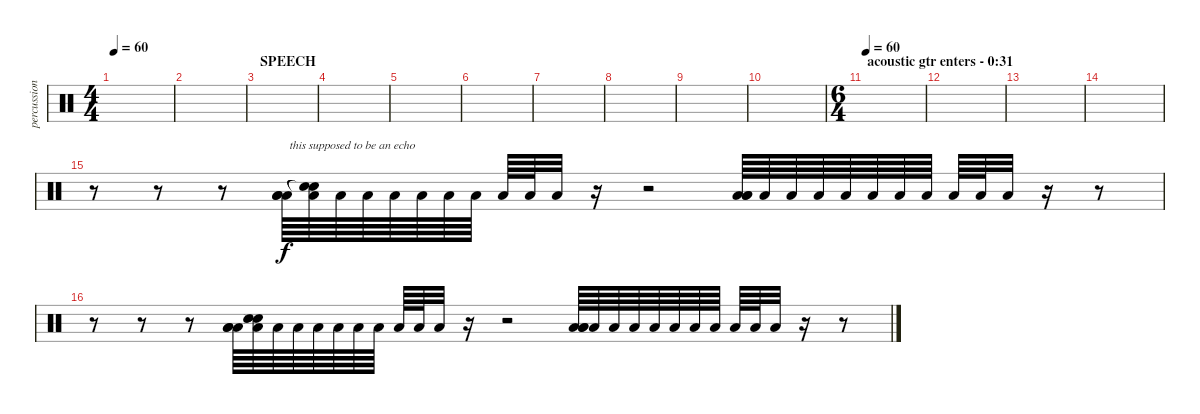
\track ("percussion" "percussion") {instrument percussion}
\staff {score}
\articulation defaults
\ts (4 4)
\tempo 60
\tempo 70
\tempo 60
\clef neutral
\ks c
|
|
\section ("" "SPEECH")
|
|
|
|
|
|
|
|
\ts (6 4)
\section ("" "acoustic gtr enters - 0:31")
\tempo 60
|
|
|
|
r.8 r.8 r.8 ("Low Floor Tom (hit)" "Low Floor Tom (hit)" "Low Floor Tom (hit)").64{txt " this supposed to be an echo" volume 0} ("Snare (hit)"{t} "Snare (hit)"{t} "Low Floor Tom (hit)").64 "Low Floor Tom (hit)".64 "Low Floor Tom (hit)".64 "Low Floor Tom (hit)".64 "Low Floor Tom (hit)".64 "Low Floor Tom (hit)".64 "Low Floor Tom (hit)".64 "Low Floor Tom (hit)".64 "Low Floor Tom (hit)".64 "Low Floor Tom (hit)".32 r.16 r.2{volume 11} ("Low Floor Tom (hit)" "Low Floor Tom (hit)" "Low Floor Tom (hit)").64{volume 0} "Low Floor Tom (hit)".64 "Low Floor Tom (hit)".64 "Low Floor Tom (hit)".64 "Low Floor Tom (hit)".64 "Low Floor Tom (hit)".64 "Low Floor Tom (hit)".64 "Low Floor Tom (hit)".64 "Low Floor Tom (hit)".64 "Low Floor Tom (hit)".64 "Low Floor Tom (hit)".32 r.16 r.8{volume 11} |
r.8 r.8 r.8 ("Low Floor Tom (hit)" "Low Floor Tom (hit)" "Low Floor Tom (hit)").64{volume 0} ("Snare (hit)"{t} "Snare (hit)"{t} "Low Floor Tom (hit)").64 "Low Floor Tom (hit)".64 "Low Floor Tom (hit)".64 "Low Floor Tom (hit)".64 "Low Floor Tom (hit)".64 "Low Floor Tom (hit)".64 "Low Floor Tom (hit)".64 "Low Floor Tom (hit)".64 "Low Floor Tom (hit)".64 "Low Floor Tom (hit)".32 r.16 r.2{volume 11} ("Low Floor Tom (hit)" "Low Floor Tom (hit)" "Low Floor Tom (hit)").64{volume 0} "Low Floor Tom (hit)".64 "Low Floor Tom (hit)".64 "Low Floor Tom (hit)".64 "Low Floor Tom (hit)".64 "Low Floor Tom (hit)".64 "Low Floor Tom (hit)".64 "Low Floor Tom (hit)".64 "Low Floor Tom (hit)".64 "Low Floor Tom (hit)".64 "Low Floor Tom (hit)".32 r.16 r.8{volume 11}
